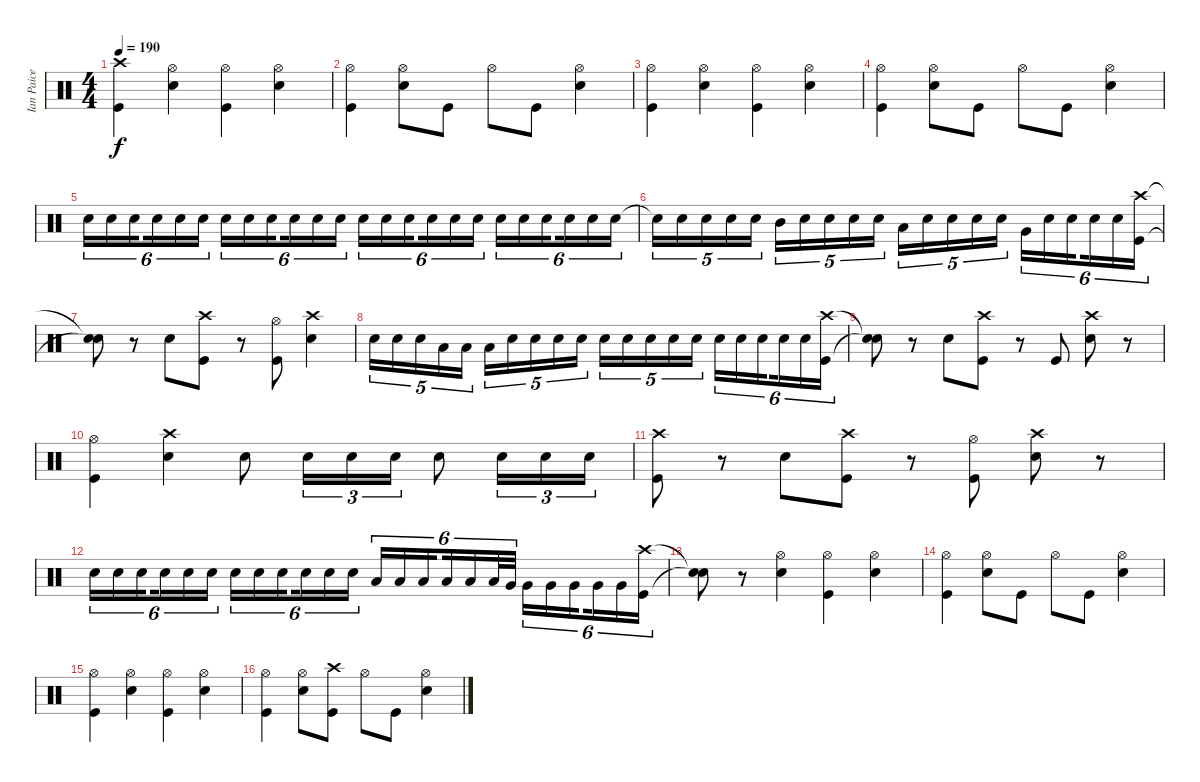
\track ("Ian Paice" "Ian Paice") {instrument percussion}
\staff {score}
\articulation defaults
\ts (4 4)
\tempo 190
\clef neutral
\ks c
("Kick (hit)" "Crash high (hit)").4{dy f} ("Hi-Hat (open)" "Snare (hit) 2").4 ("Hi-Hat (open)" "Kick (hit)").4 ("Snare (hit) 2" "Hi-Hat (open)").4 |
("Kick (hit)" "Hi-Hat (open)").4 ("Hi-Hat (open)" "Snare (hit) 2").8 "Kick (hit)".8 "Hi-Hat (open)".8 "Kick (hit)".8 ("Hi-Hat (open)" "Snare (hit) 2").4 |
("Hi-Hat (open)" "Kick (hit)").4 ("Snare (hit) 2" "Hi-Hat (open)").4 ("Hi-Hat (open)" "Kick (hit)").4 ("Hi-Hat (open)" "Snare (hit) 2").4 |
("Kick (hit)" "Hi-Hat (open)").4 ("Snare (hit) 2" "Hi-Hat (open)").8 "Kick (hit)".8 "Hi-Hat (open)".8 "Kick (hit)".8 ("Snare (hit) 2" "Hi-Hat (open)").4 |
"Snare (hit) 2".16{tu (6 4)} "Snare (hit) 2".16{tu (6 4)} "Snare (hit) 2".16{tu (6 4) beam splitsecondary} "Snare (hit) 2".16{tu (6 4)} "Snare (hit) 2".16{tu (6 4)} "Snare (hit) 2".16{tu (6 4)} "Snare (hit) 2".16{tu (6 4)} "Snare (hit) 2".16{tu (6 4)} "Snare (hit) 2".16{tu (6 4) beam splitsecondary} "Snare (hit) 2".16{tu (6 4)} "Snare (hit) 2".16{tu (6 4)} "Snare (hit) 2".16{tu (6 4)} "Snare (hit) 2".16{tu (6 4)} "Snare (hit) 2".16{tu (6 4)} "Snare (hit) 2".16{tu (6 4) beam splitsecondary} "Snare (hit) 2".16{tu (6 4)} "Snare (hit) 2".16{tu (6 4)} "Snare (hit) 2".16{tu (6 4)} "Snare (hit) 2".16{tu (6 4)} "Snare (hit) 2".16{tu (6 4)} "Snare (hit) 2".16{tu (6 4) beam splitsecondary} "Snare (hit) 2".16{tu (6 4)} "Snare (hit) 2".16{tu (6 4)} "Snare (hit) 2".16{tu (6 4)} |
"Snare (hit)"{t}.16{tu (5 4)} "Snare (hit) 2".16{tu (5 4)} "Snare (hit) 2".16{tu (5 4)} "Snare (hit) 2".16{tu (5 4)} "Snare (hit) 2".16{tu (5 4)} "Mid Tom (hit)".16{tu (5 4)} "Snare (hit) 2".16{tu (5 4)} "Snare (hit) 2".16{tu (5 4)} "Snare (hit) 2".16{tu (5 4)} "Snare (hit) 2".16{tu (5 4)} "Low Tom (hit)".16{tu (5 4)} "Snare (hit) 2".16{tu (5 4)} "Snare (hit) 2".16{tu (5 4)} "Snare (hit) 2".16{tu (5 4)} "Snare (hit) 2".16{tu (5 4)} "Very Low Tom (hit)".16{tu (6 4)} "Snare (hit) 2".16{tu (6 4)} "Snare (hit) 2".16{tu (6 4) beam splitsecondary} "Snare (hit) 2".16{tu (6 4)} "Snare (hit) 2".16{tu (6 4)} ("Crash high (hit)" "Kick (hit)").16{tu (6 4)} |
("Snare (hit)"{t} "Snare (hit)"{t}).8 r.8 "Snare (hit) 2".8 ("Crash high (hit)" "Kick (hit)").8 r.8 ("Hi-Hat (open)" "Kick (hit)").8 ("Crash high (hit)" "Snare (hit) 2").4 |
"Snare (hit) 2".16{tu (5 4)} "Snare (hit) 2".16{tu (5 4)} "Snare (hit) 2".16{tu (5 4)} "Low Tom (hit)".16{tu (5 4)} "Low Tom (hit)".16{tu (5 4)} "Low Tom (hit)".16{tu (5 4)} "Snare (hit) 2".16{tu (5 4)} "Snare (hit) 2".16{tu (5 4)} "Snare (hit) 2".16{tu (5 4)} "Snare (hit) 2".16{tu (5 4)} "Snare (hit) 2".16{tu (5 4)} "Snare (hit) 2".16{tu (5 4)} "Snare (hit) 2".16{tu (5 4)} "Snare (hit) 2".16{tu (5 4)} "Snare (hit) 2".16{tu (5 4)} "Snare (hit) 2".16{tu (6 4)} "Snare (hit) 2".16{tu (6 4)} "Snare (hit) 2".16{tu (6 4) beam splitsecondary} "Snare (hit) 2".16{tu (6 4)} "Snare (hit) 2".16{tu (6 4)} ("Kick (hit)" "Crash high (hit)").16{tu (6 4)} |
("Snare (hit)"{t} "Snare (hit)"{t}).8 r.8 "Snare (hit) 2".8 ("Crash high (hit)" "Kick (hit)").8 r.8 "Kick (hit)".8 ("Crash high (hit)" "Snare (hit) 2").8 r.8 |
("Kick (hit)" "Hi-Hat (open)").4 ("Crash high (hit)" "Snare (hit) 2").4 "Snare (hit) 2".8 "Snare (hit) 2".16{tu (3 2)} "Snare (hit) 2".16{tu (3 2)} "Snare (hit) 2".16{tu (3 2)} "Snare (hit) 2".8 "Snare (hit) 2".16{tu (3 2)} "Snare (hit) 2".16{tu (3 2)} "Snare (hit) 2".16{tu (3 2)} |
("Kick (hit)" "Crash high (hit)").8 r.8 "Snare (hit) 2".8 ("Kick (hit)" "Crash high (hit)").8 r.8 ("Hi-Hat (open)" "Kick (hit)").8 ("Snare (hit) 2" "Crash high (hit)").8 r.8 |
"Snare (hit) 2".16{tu (6 4)} "Snare (hit) 2".16{tu (6 4)} "Snare (hit) 2".16{tu (6 4) beam splitsecondary} "Snare (hit) 2".16{tu (6 4)} "Snare (hit) 2".16{tu (6 4)} "Snare (hit) 2".16{tu (6 4)} "Snare (hit) 2".16{tu (6 4)} "Snare (hit) 2".16{tu (6 4)} "Snare (hit) 2".16{tu (6 4) beam splitsecondary} "Snare (hit) 2".16{tu (6 4)} "Snare (hit) 2".16{tu (6 4)} "Snare (hit) 2".16{tu (6 4)} "Low Tom (hit)".16{tu (6 4)} "Low Tom (hit)".16{tu (6 4)} "Low Tom (hit)".16{tu (6 4) beam splitsecondary} "Low Tom (hit)".16{tu (6 4)} "Low Tom (hit)".16{tu (6 4)} "Low Tom (hit)".32{tu (6 4)} "Very Low Tom (hit)".32{tu (6 4)} "Very Low Tom (hit)".16{tu (6 4)} "Very Low Tom (hit)".16{tu (6 4)} "Very Low Tom (hit)".16{tu (6 4) beam splitsecondary} "Very Low Tom (hit)".16{tu (6 4)} "Very Low Tom (hit)".16{tu (6 4)} ("Crash high (hit)" "Kick (hit)").16{tu (6 4)} |
("Snare (hit)"{t} "Snare (hit)"{t}).8 r.8 ("Hi-Hat (open)" "Snare (hit) 2").4 ("Hi-Hat (open)" "Kick (hit)").4 ("Hi-Hat (open)" "Snare (hit) 2").4 |
("Hi-Hat (open)" "Kick (hit)").4 ("Hi-Hat (open)" "Snare (hit) 2").8 "Kick (hit)".8 "Hi-Hat (open)".8 "Kick (hit)".8 ("Snare (hit) 2" "Hi-Hat (open)").4 |
("Kick (hit)" "Hi-Hat (open)").4 ("Snare (hit) 2" "Hi-Hat (open)").4 ("Hi-Hat (open)" "Kick (hit)").4 ("Snare (hit) 2" "Hi-Hat (open)").4 |
("Kick (hit)" "Hi-Hat (open)").4 ("Snare (hit) 2" "Hi-Hat (open)").8 ("Kick (hit)" "Crash high (hit)").8 "Hi-Hat (open)".8 "Kick (hit)".8 ("Snare (hit) 2" "Hi-Hat (open)").4
